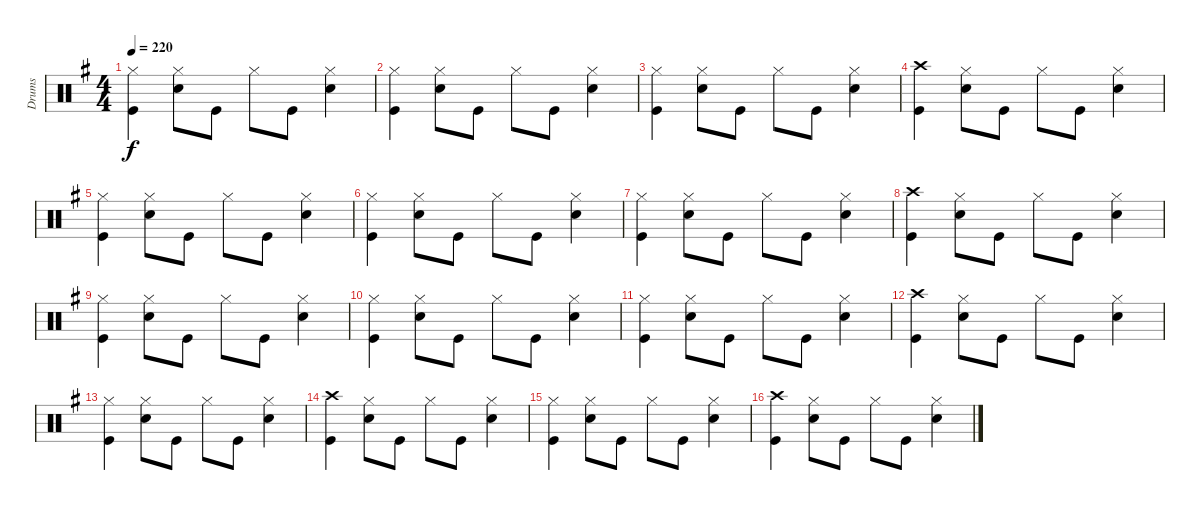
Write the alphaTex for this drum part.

\track ("Drums" "Drums") {instrument percussion}
\staff {score}
\articulation defaults
\ts (4 4)
\tempo 220
\clef neutral
\ks g
("Hi-Hat (closed)" "Kick (hit)").4{dy f} ("Hi-Hat (closed)" "Snare (hit) 2").8 "Kick (hit)".8 "Hi-Hat (closed)".8 "Kick (hit)".8 ("Hi-Hat (closed)" "Snare (hit) 2").4 |
("Hi-Hat (closed)" "Kick (hit)").4 ("Hi-Hat (closed)" "Snare (hit) 2").8 "Kick (hit)".8 "Hi-Hat (closed)".8 "Kick (hit)".8 ("Hi-Hat (closed)" "Snare (hit) 2").4 |
("Hi-Hat (closed)" "Kick (hit)").4 ("Hi-Hat (closed)" "Snare (hit) 2").8 "Kick (hit)".8 "Hi-Hat (closed)".8 "Kick (hit)".8 ("Hi-Hat (closed)" "Snare (hit) 2").4 |
("Crash high (hit)" "Kick (hit)").4 ("Hi-Hat (closed)" "Snare (hit) 2").8 "Kick (hit)".8 "Hi-Hat (closed)".8 "Kick (hit)".8 ("Hi-Hat (closed)" "Snare (hit) 2").4 |
("Hi-Hat (closed)" "Kick (hit)").4 ("Hi-Hat (closed)" "Snare (hit) 2").8 "Kick (hit)".8 "Hi-Hat (closed)".8 "Kick (hit)".8 ("Hi-Hat (closed)" "Snare (hit) 2").4 |
("Hi-Hat (closed)" "Kick (hit)").4 ("Hi-Hat (closed)" "Snare (hit) 2").8 "Kick (hit)".8 "Hi-Hat (closed)".8 "Kick (hit)".8 ("Hi-Hat (closed)" "Snare (hit) 2").4 |
("Hi-Hat (closed)" "Kick (hit)").4 ("Hi-Hat (closed)" "Snare (hit) 2").8 "Kick (hit)".8 "Hi-Hat (closed)".8 "Kick (hit)".8 ("Hi-Hat (closed)" "Snare (hit) 2").4 |
("Crash high (hit)" "Kick (hit)").4 ("Hi-Hat (closed)" "Snare (hit) 2").8 "Kick (hit)".8 "Hi-Hat (closed)".8 "Kick (hit)".8 ("Hi-Hat (closed)" "Snare (hit) 2").4 |
("Hi-Hat (closed)" "Kick (hit)").4 ("Hi-Hat (closed)" "Snare (hit) 2").8 "Kick (hit)".8 "Hi-Hat (closed)".8 "Kick (hit)".8 ("Hi-Hat (closed)" "Snare (hit) 2").4 |
("Hi-Hat (closed)" "Kick (hit)").4 ("Hi-Hat (closed)" "Snare (hit) 2").8 "Kick (hit)".8 "Hi-Hat (closed)".8 "Kick (hit)".8 ("Hi-Hat (closed)" "Snare (hit) 2").4 |
("Hi-Hat (closed)" "Kick (hit)").4 ("Hi-Hat (closed)" "Snare (hit) 2").8 "Kick (hit)".8 "Hi-Hat (closed)".8 "Kick (hit)".8 ("Hi-Hat (closed)" "Snare (hit) 2").4 |
("Crash high (hit)" "Kick (hit)").4 ("Hi-Hat (closed)" "Snare (hit) 2").8 "Kick (hit)".8 "Hi-Hat (closed)".8 "Kick (hit)".8 ("Hi-Hat (closed)" "Snare (hit) 2").4 |
("Hi-Hat (closed)" "Kick (hit)").4 ("Hi-Hat (closed)" "Snare (hit) 2").8 "Kick (hit)".8 "Hi-Hat (closed)".8 "Kick (hit)".8 ("Hi-Hat (closed)" "Snare (hit) 2").4 |
("Crash high (hit)" "Kick (hit)").4 ("Hi-Hat (closed)" "Snare (hit) 2").8 "Kick (hit)".8 "Hi-Hat (closed)".8 "Kick (hit)".8 ("Hi-Hat (closed)" "Snare (hit) 2").4 |
("Hi-Hat (closed)" "Kick (hit)").4 ("Hi-Hat (closed)" "Snare (hit) 2").8 "Kick (hit)".8 "Hi-Hat (closed)".8 "Kick (hit)".8 ("Hi-Hat (closed)" "Snare (hit) 2").4 |
("Crash high (hit)" "Kick (hit)").4 ("Hi-Hat (closed)" "Snare (hit) 2").8 "Kick (hit)".8 "Hi-Hat (closed)".8 "Kick (hit)".8 ("Hi-Hat (closed)" "Snare (hit) 2").4
